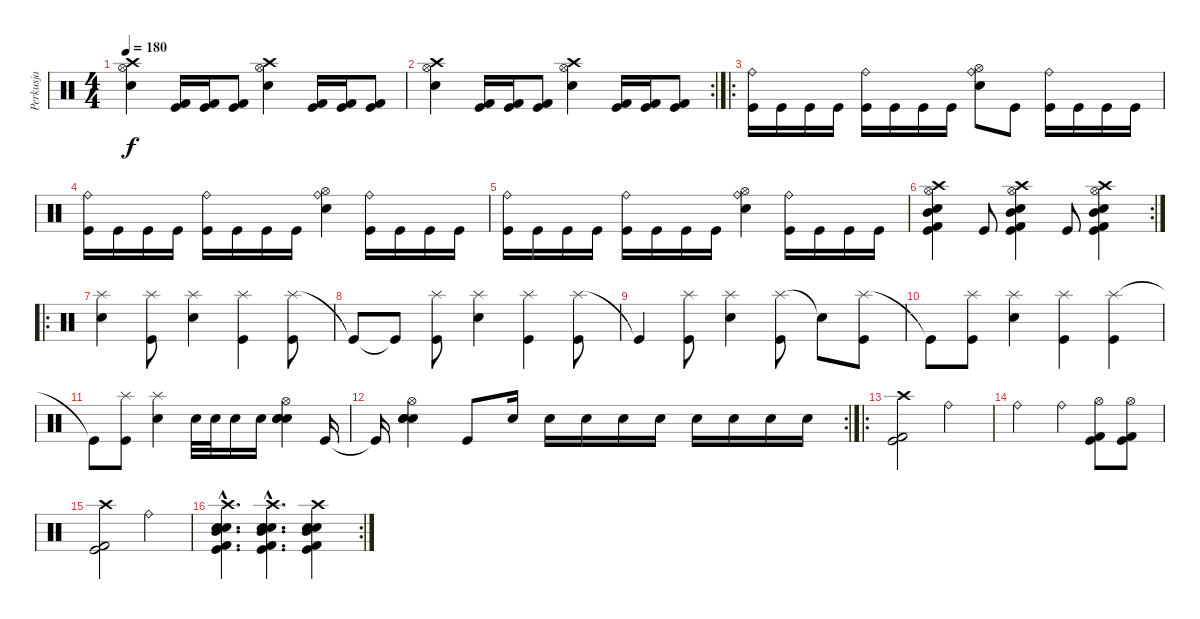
\track ("Perkusja" "Perkusja") {instrument percussion}
\staff {score}
\articulation defaults
\ts (4 4)
\tempo 180
\clef neutral
\ks c
("Hi-Hat (open)" "Crash high (hit)" "Snare (hit) 2").4{dy f} ("Kick (hit) 2" "Kick (hit)").16 ("Kick (hit) 2" "Kick (hit)").16 ("Kick (hit) 2" "Kick (hit)").8 ("Hi-Hat (open)" "Crash high (hit)" "Snare (hit) 2").4 ("Kick (hit) 2" "Kick (hit)").16 ("Kick (hit) 2" "Kick (hit)").16 ("Kick (hit) 2" "Kick (hit)").8 |
\rc 2
("Hi-Hat (open)" "Crash high (hit)" "Snare (hit) 2").4 ("Kick (hit) 2" "Kick (hit)").16 ("Kick (hit) 2" "Kick (hit)").16 ("Kick (hit) 2" "Kick (hit)").8 ("Hi-Hat (open)" "Crash high (hit)" "Snare (hit) 2").4 ("Kick (hit)" "Kick (hit) 2").16 ("Kick (hit)" "Kick (hit) 2").16 ("Kick (hit)" "Kick (hit) 2").8 |
\ro
("Ride (bell)" "Kick (hit)").16 "Kick (hit)".16 "Kick (hit)".16 "Kick (hit)".16 ("Ride (bell)" "Kick (hit)").16 "Kick (hit)".16 "Kick (hit)".16 "Kick (hit)".16 ("Ride (bell)" "Hi-Hat (open)" "Snare (hit) 2").8 "Kick (hit)".8 ("Ride (bell)" "Kick (hit)").16 "Kick (hit)".16 "Kick (hit)".16 "Kick (hit)".16 |
("Ride (bell)" "Kick (hit)").16 "Kick (hit)".16 "Kick (hit)".16 "Kick (hit)".16 ("Ride (bell)" "Kick (hit)").16 "Kick (hit)".16 "Kick (hit)".16 "Kick (hit)".16 ("Ride (bell)" "Hi-Hat (open)" "Snare (hit) 2").4 ("Ride (bell)" "Kick (hit)").16 "Kick (hit)".16 "Kick (hit)".16 "Kick (hit)".16 |
("Ride (bell)" "Kick (hit)").16 "Kick (hit)".16 "Kick (hit)".16 "Kick (hit)".16 ("Ride (bell)" "Kick (hit)").16 "Kick (hit)".16 "Kick (hit)".16 "Kick (hit)".16 ("Ride (bell)" "Hi-Hat (open)" "Snare (hit) 2").4 ("Ride (bell)" "Kick (hit)").16 "Kick (hit)".16 "Kick (hit)".16 "Kick (hit)".16 |
\rc 2
("Crash high (hit)" "Hi-Hat (open)" "Snare (hit) 2" "Mid Tom (hit)" "Kick (hit)" "Kick (hit) 2").4 "Kick (hit)".8 ("Crash high (hit)" "Hi-Hat (open)" "Snare (hit) 2" "Mid Tom (hit)" "Kick (hit)" "Kick (hit) 2").4 "Kick (hit)".8 ("Crash high (hit)" "Hi-Hat (open)" "Snare (hit) 2" "Mid Tom (hit)" "Kick (hit)" "Kick (hit) 2").4 |
\ro
("Splash (hit)" "Snare (hit) 2").4 ("Splash (hit)" "Kick (hit)").8 ("Splash (hit)" "Snare (hit) 2").4 ("Splash (hit)" "Kick (hit)").4 ("Splash (hit)" "Kick (hit)").8 |
"Kick (hit)"{t}.8 "Kick (hit)"{t}.8 ("Splash (hit)" "Kick (hit)").8 ("Splash (hit)" "Snare (hit) 2").4 ("Splash (hit)" "Kick (hit)").4 ("Splash (hit)" "Kick (hit)").8 |
"Kick (hit)"{t}.4 ("Splash (hit)" "Kick (hit)").8 ("Splash (hit)" "Snare (hit) 2").4 ("Splash (hit)" "Kick (hit)").8 "Snare (hit)"{t}.8 ("Splash (hit)" "Kick (hit)").8 |
"Kick (hit)"{t}.8 ("Splash (hit)" "Kick (hit)").8 ("Splash (hit)" "Snare (hit) 2").4 ("Splash (hit)" "Kick (hit)").4 ("Splash (hit)" "Kick (hit)").4 |
"Kick (hit)"{t}.8 ("Splash (hit)" "Kick (hit)").8 ("Splash (hit)" "Snare (hit) 2").4 "Electric Snare (hit)".32 "Electric Snare (hit)".32 "Electric Snare (hit)".16 "Electric Snare (hit)".16 ("Hi-Hat (open)" "Snare (hit) 2" "Snare (hit) 2" "Snare (hit) 2").4 "Kick (hit)".16 |
\rc 2 "Kick (hit)"{t}.16
("Hi-Hat (open)" "Snare (hit) 2" "Snare (hit) 2" "Snare (hit) 2").4 "Kick (hit)".8 "Electric Snare (hit)".16 "Electric Snare (hit)".16 "Electric Snare (hit)".16 "Electric Snare (hit)".16 "Electric Snare (hit)".16 "Electric Snare (hit)".16 "Electric Snare (hit)".16 "Electric Snare (hit)".16 "Electric Snare (hit)".16 |
\ro
("Crash high (hit)" "Kick (hit) 2" "Kick (hit)").2 "Ride (bell)".2 |
"Ride (bell)".2 "Ride (bell)".4 ("Hi-Hat (open)" "Kick (hit) 2" "Kick (hit)").8 ("Hi-Hat (open)" "Kick (hit) 2" "Kick (hit)").8 |
("Crash high (hit)" "Kick (hit) 2" "Kick (hit)").2 "Ride (bell)".2 |
\rc 2
("Kick (hit) 2"{hac} "Snare (hit) 2"{hac} "Snare (hit) 2"{hac} "Crash high (hit)"{hac} "Mid Tom (hit)"{hac} "Kick (hit)"{hac}).4{d} ("Kick (hit) 2"{hac} "Snare (hit) 2"{hac} "Snare (hit) 2"{hac} "Crash high (hit)"{hac} "Mid Tom (hit)"{hac} "Kick (hit)"{hac}).4{d} ("Kick (hit) 2" "Snare (hit) 2" "Snare (hit) 2" "Crash high (hit)" "Mid Tom (hit)" "Kick (hit)").4
